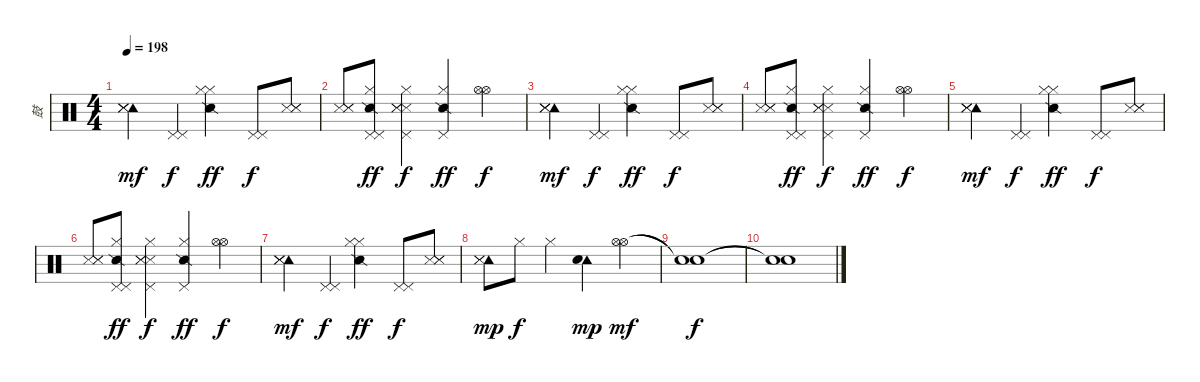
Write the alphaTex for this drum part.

\track ("鼓" "鼓") {instrument percussion}
\staff {score}
\articulation defaults
\ts (4 4)
\tempo 198
\clef neutral
\ks c
("Tambourine (hit)" "Metronome (hit)" "Metronome (hit)" "Metronome (hit)").4{dy mf} ("Pedal Hi-Hat (hit)" "Pedal Hi-Hat (hit)").4{dy f} ("Hi-Hat (closed)" "Hi-Hat (closed)" "Snare (side stick) 2").4{dy ff} ("Pedal Hi-Hat (hit)" "Pedal Hi-Hat (hit)").8{dy f} ("Metronome (hit)" "Metronome (hit)" "Metronome (hit)").8 |
("Metronome (hit)" "Metronome (hit)" "Metronome (hit)").8 ("Pedal Hi-Hat (hit)" "Pedal Hi-Hat (hit)" "Snare (side stick) 2" "Hi-Hat (closed)").8{dy ff} ("Pedal Hi-Hat (hit)" "Hi-Hat (closed)" "Metronome (hit)" "Metronome (hit)" "Metronome (hit)").4{dy f} ("Pedal Hi-Hat (hit)" "Snare (side stick) 2" "Hi-Hat (closed)").4{dy ff} ("Hi-Hat (open)" "Hi-Hat (open)").4{dy f} |
("Tambourine (hit)" "Metronome (hit)" "Metronome (hit)" "Metronome (hit)").4{dy mf} ("Pedal Hi-Hat (hit)" "Pedal Hi-Hat (hit)").4{dy f} ("Hi-Hat (closed)" "Hi-Hat (closed)" "Snare (side stick) 2").4{dy ff} ("Pedal Hi-Hat (hit)" "Pedal Hi-Hat (hit)").8{dy f} ("Metronome (hit)" "Metronome (hit)" "Metronome (hit)").8 |
("Metronome (hit)" "Metronome (hit)" "Metronome (hit)").8 ("Pedal Hi-Hat (hit)" "Pedal Hi-Hat (hit)" "Snare (side stick) 2" "Hi-Hat (closed)").8{dy ff} ("Pedal Hi-Hat (hit)" "Hi-Hat (closed)" "Metronome (hit)" "Metronome (hit)" "Metronome (hit)").4{dy f} ("Pedal Hi-Hat (hit)" "Snare (side stick) 2" "Hi-Hat (closed)").4{dy ff} ("Hi-Hat (open)" "Hi-Hat (open)").4{dy f} |
("Tambourine (hit)" "Metronome (hit)" "Metronome (hit)" "Metronome (hit)").4{dy mf} ("Pedal Hi-Hat (hit)" "Pedal Hi-Hat (hit)").4{dy f} ("Hi-Hat (closed)" "Hi-Hat (closed)" "Snare (side stick) 2").4{dy ff} ("Pedal Hi-Hat (hit)" "Pedal Hi-Hat (hit)").8{dy f} ("Metronome (hit)" "Metronome (hit)" "Metronome (hit)").8 |
("Metronome (hit)" "Metronome (hit)" "Metronome (hit)").8 ("Pedal Hi-Hat (hit)" "Pedal Hi-Hat (hit)" "Snare (side stick) 2" "Hi-Hat (closed)").8{dy ff} ("Pedal Hi-Hat (hit)" "Hi-Hat (closed)" "Metronome (hit)" "Metronome (hit)" "Metronome (hit)").4{dy f} ("Pedal Hi-Hat (hit)" "Snare (side stick) 2" "Hi-Hat (closed)").4{dy ff} ("Hi-Hat (open)" "Hi-Hat (open)").4{dy f} |
("Tambourine (hit)" "Metronome (hit)" "Metronome (hit)" "Metronome (hit)").4{dy mf} ("Pedal Hi-Hat (hit)" "Pedal Hi-Hat (hit)").4{dy f} ("Hi-Hat (closed)" "Hi-Hat (closed)" "Snare (side stick) 2").4{dy ff} ("Pedal Hi-Hat (hit)" "Pedal Hi-Hat (hit)").8{dy f} ("Metronome (hit)" "Metronome (hit)" "Metronome (hit)").8 |
("Tambourine (hit)" "Metronome (hit)" "Metronome (hit)").8{dy mp} "Hi-Hat (closed)".8{dy f} "Hi-Hat (closed)".4 ("Tambourine (hit)" "Metronome (bell)").4{dy mp} ("Hi-Hat (open)" "Hi-Hat (open)").4{dy mf} |
("Snare (hit)"{t} "Snare (hit)"{t}).1{dy f} |
("Snare (hit)"{t} "Snare (hit)"{t}).1
